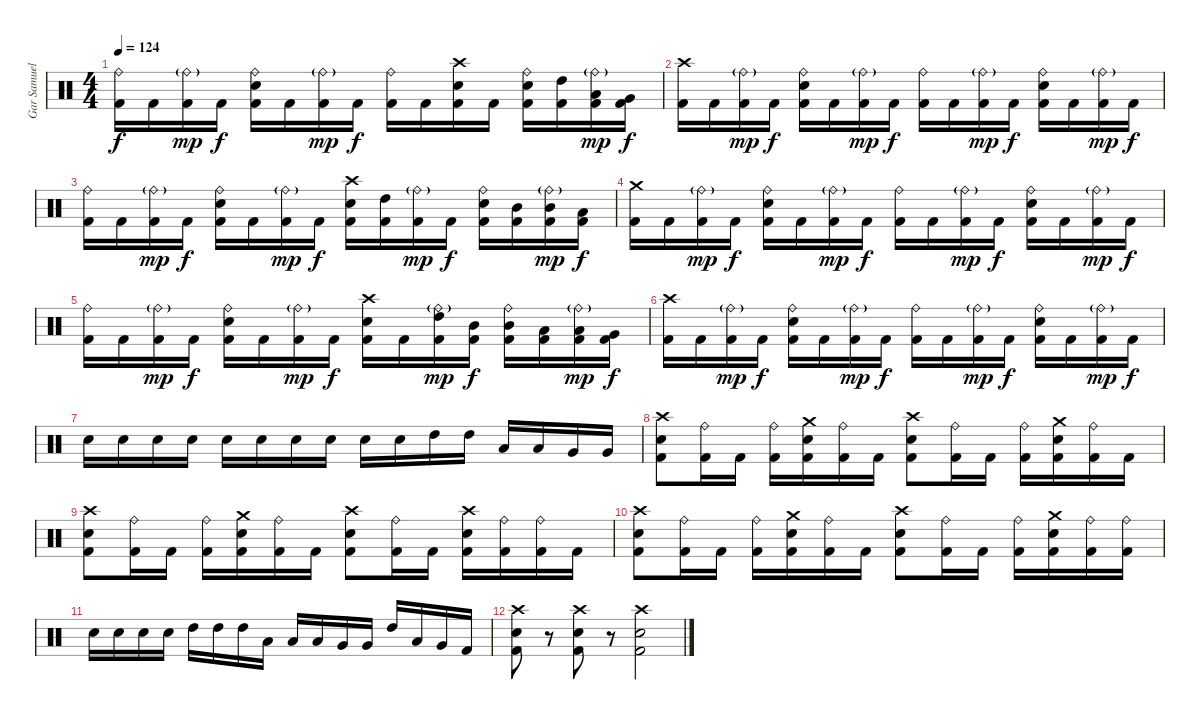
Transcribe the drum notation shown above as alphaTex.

\track ("Gar Samuelson" "Gar Samuel") {instrument percussion}
\staff {score}
\articulation defaults
\ts (4 4)
\tempo 124
\clef neutral
\ks c
("Ride (bell)" "Kick (hit) 2").16{dy f} "Kick (hit) 2".16 ("Ride (bell)"{g} "Kick (hit) 2").16{dy mp} "Kick (hit) 2".16{dy f} ("Ride (bell)" "Electric Snare (hit)" "Kick (hit) 2").16 "Kick (hit) 2".16 ("Ride (bell)"{g} "Kick (hit) 2").16{dy mp} "Kick (hit) 2".16{dy f} ("Ride (bell)" "Kick (hit) 2").16 "Kick (hit) 2".16 ("Crash high (hit)" "Electric Snare (hit)" "Kick (hit) 2").16 "Kick (hit) 2".16 ("Ride (bell)" "Electric Snare (hit)" "Kick (hit) 2").16 ("High Tom (hit)" "Kick (hit) 2").16 ("Ride (bell)"{g} "Low Tom (hit)" "Kick (hit) 2").16{dy mp} ("Very Low Tom (hit)" "Kick (hit) 2").16{dy f} |
("Crash high (hit)" "Kick (hit) 2").16 "Kick (hit) 2".16 ("Ride (bell)"{g} "Kick (hit) 2").16{dy mp} "Kick (hit) 2".16{dy f} ("Ride (bell)" "Electric Snare (hit)" "Kick (hit) 2").16 "Kick (hit) 2".16 ("Ride (bell)"{g} "Kick (hit) 2").16{dy mp} "Kick (hit) 2".16{dy f} ("Ride (bell)" "Kick (hit) 2").16 "Kick (hit) 2".16 ("Ride (bell)"{g} "Kick (hit) 2").16{dy mp} "Kick (hit) 2".16{dy f} ("Ride (bell)" "Electric Snare (hit)" "Kick (hit) 2").16 "Kick (hit) 2".16 ("Ride (bell)"{g} "Kick (hit) 2").16{dy mp} "Kick (hit) 2".16{dy f} |
("Ride (bell)" "Kick (hit) 2").16 "Kick (hit) 2".16 ("Ride (bell)"{g} "Kick (hit) 2").16{dy mp} "Kick (hit) 2".16{dy f} ("Ride (bell)" "Electric Snare (hit)" "Kick (hit) 2").16 "Kick (hit) 2".16 ("Ride (bell)"{g} "Kick (hit) 2").16{dy mp} "Kick (hit) 2".16{dy f} ("Crash high (hit)" "Electric Snare (hit)" "Kick (hit) 2").16 ("High Tom (hit)" "Kick (hit) 2").16 ("Ride (bell)"{g} "Kick (hit) 2").16{dy mp} "Kick (hit) 2".16{dy f} ("Ride (bell)" "Electric Snare (hit)" "Kick (hit) 2").16 ("Mid Tom (hit)" "Kick (hit) 2").16 ("Ride (bell)"{g} "Mid Tom (hit)" "Kick (hit) 2").16{dy mp} ("Low Tom (hit)" "Kick (hit) 2").16{dy f} |
("Crash medium (hit)" "Kick (hit) 2").16 "Kick (hit) 2".16 ("Ride (bell)"{g} "Kick (hit) 2").16{dy mp} "Kick (hit) 2".16{dy f} ("Ride (bell)" "Electric Snare (hit)" "Kick (hit) 2").16 "Kick (hit) 2".16 ("Ride (bell)"{g} "Kick (hit) 2").16{dy mp} "Kick (hit) 2".16{dy f} ("Ride (bell)" "Kick (hit) 2").16 "Kick (hit) 2".16 ("Ride (bell)"{g} "Kick (hit) 2").16{dy mp} "Kick (hit) 2".16{dy f} ("Ride (bell)" "Electric Snare (hit)" "Kick (hit) 2").16 "Kick (hit) 2".16 ("Ride (bell)"{g} "Kick (hit) 2").16{dy mp} "Kick (hit) 2".16{dy f} |
("Ride (bell)" "Kick (hit) 2").16 "Kick (hit) 2".16 ("Ride (bell)"{g} "Kick (hit) 2").16{dy mp} "Kick (hit) 2".16{dy f} ("Ride (bell)" "Electric Snare (hit)" "Kick (hit) 2").16 "Kick (hit) 2".16 ("Ride (bell)"{g} "Kick (hit) 2").16{dy mp} "Kick (hit) 2".16{dy f} ("Crash high (hit)" "Electric Snare (hit)" "Kick (hit) 2").16 "Kick (hit) 2".16 ("Ride (bell)"{g} "High Tom (hit)" "Kick (hit) 2").16{dy mp} ("Mid Tom (hit)" "Kick (hit) 2").16{dy f} ("Ride (bell)" "Mid Tom (hit)" "Kick (hit) 2").16 ("Low Tom (hit)" "Kick (hit) 2").16 ("Ride (bell)"{g} "Low Tom (hit)" "Kick (hit) 2").16{dy mp} ("Very Low Tom (hit)" "Kick (hit) 2").16{dy f} |
("Crash high (hit)" "Kick (hit) 2").16 "Kick (hit) 2".16 ("Ride (bell)"{g} "Kick (hit) 2").16{dy mp} "Kick (hit) 2".16{dy f} ("Ride (bell)" "Electric Snare (hit)" "Kick (hit) 2").16 "Kick (hit) 2".16 ("Ride (bell)"{g} "Kick (hit) 2").16{dy mp} "Kick (hit) 2".16{dy f} ("Ride (bell)" "Kick (hit) 2").16 "Kick (hit) 2".16 ("Ride (bell)"{g} "Kick (hit) 2").16{dy mp} "Kick (hit) 2".16{dy f} ("Ride (bell)" "Electric Snare (hit)" "Kick (hit) 2").16 "Kick (hit) 2".16 ("Ride (bell)"{g} "Kick (hit) 2").16{dy mp} "Kick (hit) 2".16{dy f} |
"Electric Snare (hit)".16 "Electric Snare (hit)".16 "Electric Snare (hit)".16 "Electric Snare (hit)".16 "Electric Snare (hit)".16 "Electric Snare (hit)".16 "Electric Snare (hit)".16 "Electric Snare (hit)".16 "Electric Snare (hit)".16 "Electric Snare (hit)".16 "High Tom (hit)".16 "High Tom (hit)".16 "Low Tom (hit)".16 "Low Tom (hit)".16 "Very Low Tom (hit)".16 "Very Low Tom (hit)".16 |
("Crash high (hit)" "Electric Snare (hit)" "Kick (hit) 2").8 ("Ride (bell)" "Kick (hit) 2").16 "Kick (hit) 2".16 ("Ride (bell)" "Kick (hit) 2").16 ("Crash medium (hit)" "Electric Snare (hit)" "Kick (hit) 2").16 ("Ride (bell)" "Kick (hit) 2").16 "Kick (hit) 2".16 ("Crash high (hit)" "Electric Snare (hit)" "Kick (hit) 2").8 ("Ride (bell)" "Kick (hit) 2").16 "Kick (hit) 2".16 ("Ride (bell)" "Kick (hit) 2").16 ("Crash medium (hit)" "Electric Snare (hit)" "Kick (hit) 2").16 ("Ride (bell)" "Kick (hit) 2").16 "Kick (hit) 2".16 |
("Crash high (hit)" "Electric Snare (hit)" "Kick (hit) 2").8 ("Ride (bell)" "Kick (hit) 2").16 "Kick (hit) 2".16 ("Ride (bell)" "Kick (hit) 2").16 ("Crash medium (hit)" "Electric Snare (hit)" "Kick (hit) 2").16 ("Ride (bell)" "Kick (hit) 2").16 "Kick (hit) 2".16 ("Crash high (hit)" "Electric Snare (hit)" "Kick (hit) 2").8 ("Ride (bell)" "Kick (hit) 2").16 "Kick (hit) 2".16 ("Crash high (hit)" "Electric Snare (hit)" "Kick (hit) 2").16 ("Ride (bell)" "Kick (hit) 2").16 ("Ride (bell)" "Kick (hit) 2").16 "Kick (hit) 2".16 |
("Crash high (hit)" "Electric Snare (hit)" "Kick (hit) 2").8 ("Ride (bell)" "Kick (hit) 2").16 "Kick (hit) 2".16 ("Ride (bell)" "Kick (hit) 2").16 ("Crash medium (hit)" "Electric Snare (hit)" "Kick (hit) 2").16 ("Ride (bell)" "Kick (hit) 2").16 "Kick (hit) 2".16 ("Crash high (hit)" "Electric Snare (hit)" "Kick (hit) 2").8 ("Ride (bell)" "Kick (hit) 2").16 "Kick (hit) 2".16 ("Ride (bell)" "Kick (hit) 2").16 ("Crash medium (hit)" "Electric Snare (hit)" "Kick (hit) 2").16 ("Ride (bell)" "Kick (hit) 2").16 ("Ride (bell)" "Kick (hit) 2").16 |
"Electric Snare (hit)".16 "Electric Snare (hit)".16 "Electric Snare (hit)".16 "Electric Snare (hit)".16 "High Tom (hit)".16 "High Tom (hit)".16 "High Tom (hit)".16 "Low Tom (hit)".16 "Low Tom (hit)".16 "Low Tom (hit)".16 "Very Low Tom (hit)".16 "Very Low Tom (hit)".16 "High Tom (hit)".16 "Low Tom (hit)".16 "Very Low Tom (hit)".16 "Kick (hit) 2".16 |
("Crash high (hit)" "Electric Snare (hit)" "Kick (hit) 2").8 r.8 ("Crash high (hit)" "Electric Snare (hit)" "Kick (hit) 2").8 r.8 ("Crash high (hit)" "Electric Snare (hit)" "Kick (hit) 2").2
